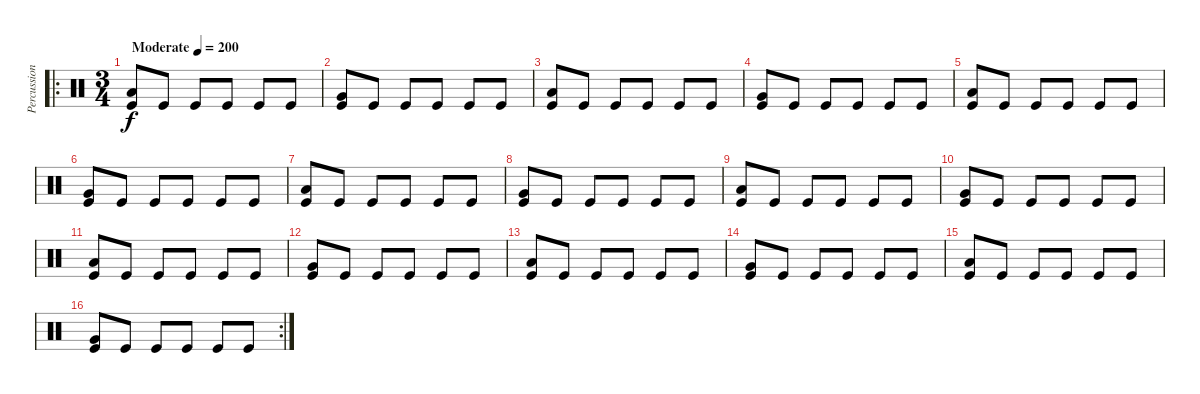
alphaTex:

\track ("Percussion" "Percussion") {instrument percussion}
\staff {score}
\articulation defaults
\ro
\ts (3 4)
\tempo (200 "Moderate")
\clef neutral
\ks c
("Low Floor Tom (hit)" "Kick (hit)").8{dy f} "Kick (hit)".8 "Kick (hit)".8 "Kick (hit)".8 "Kick (hit)".8 "Kick (hit)".8 |
("Very Low Tom (hit)" "Kick (hit)").8 "Kick (hit)".8 "Kick (hit)".8 "Kick (hit)".8 "Kick (hit)".8 "Kick (hit)".8 |
("Low Floor Tom (hit)" "Kick (hit)").8 "Kick (hit)".8 "Kick (hit)".8 "Kick (hit)".8 "Kick (hit)".8 "Kick (hit)".8 |
("Very Low Tom (hit)" "Kick (hit)").8 "Kick (hit)".8 "Kick (hit)".8 "Kick (hit)".8 "Kick (hit)".8 "Kick (hit)".8 |
("Low Floor Tom (hit)" "Kick (hit)").8 "Kick (hit)".8 "Kick (hit)".8 "Kick (hit)".8 "Kick (hit)".8 "Kick (hit)".8 |
("Very Low Tom (hit)" "Kick (hit)").8 "Kick (hit)".8 "Kick (hit)".8 "Kick (hit)".8 "Kick (hit)".8 "Kick (hit)".8 |
("Low Floor Tom (hit)" "Kick (hit)").8 "Kick (hit)".8 "Kick (hit)".8 "Kick (hit)".8 "Kick (hit)".8 "Kick (hit)".8 |
("Very Low Tom (hit)" "Kick (hit)").8 "Kick (hit)".8 "Kick (hit)".8 "Kick (hit)".8 "Kick (hit)".8 "Kick (hit)".8 |
("Low Floor Tom (hit)" "Kick (hit)").8 "Kick (hit)".8 "Kick (hit)".8 "Kick (hit)".8 "Kick (hit)".8 "Kick (hit)".8 |
("Very Low Tom (hit)" "Kick (hit)").8 "Kick (hit)".8 "Kick (hit)".8 "Kick (hit)".8 "Kick (hit)".8 "Kick (hit)".8 |
("Low Floor Tom (hit)" "Kick (hit)").8 "Kick (hit)".8 "Kick (hit)".8 "Kick (hit)".8 "Kick (hit)".8 "Kick (hit)".8 |
("Very Low Tom (hit)" "Kick (hit)").8 "Kick (hit)".8 "Kick (hit)".8 "Kick (hit)".8 "Kick (hit)".8 "Kick (hit)".8 |
("Low Floor Tom (hit)" "Kick (hit)").8 "Kick (hit)".8 "Kick (hit)".8 "Kick (hit)".8 "Kick (hit)".8 "Kick (hit)".8 |
("Very Low Tom (hit)" "Kick (hit)").8 "Kick (hit)".8 "Kick (hit)".8 "Kick (hit)".8 "Kick (hit)".8 "Kick (hit)".8 |
("Low Floor Tom (hit)" "Kick (hit)").8 "Kick (hit)".8 "Kick (hit)".8 "Kick (hit)".8 "Kick (hit)".8 "Kick (hit)".8 |
\rc 2
("Very Low Tom (hit)" "Kick (hit)").8 "Kick (hit)".8 "Kick (hit)".8 "Kick (hit)".8 "Kick (hit)".8 "Kick (hit)".8
